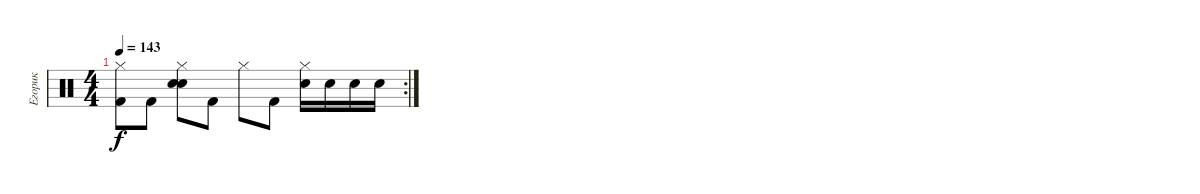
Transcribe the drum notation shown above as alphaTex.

\track ("Егорик" "Егорик") {instrument percussion}
\staff {score}
\articulation defaults
\rc 2
\ts (4 4)
\tempo 143
\clef neutral
\ks c
("Hi-Hat (closed)" "Kick (hit) 2").8{dy f} "Kick (hit) 2".8 ("Hi-Hat (closed)" "Snare (hit) 2" "Electric Snare (hit)").8 "Kick (hit) 2".8 "Hi-Hat (closed)".8 "Kick (hit) 2".8 ("Hi-Hat (closed)" "Electric Snare (hit)").16 "Electric Snare (hit)".16 "Electric Snare (hit)".16 "Electric Snare (hit)".16
